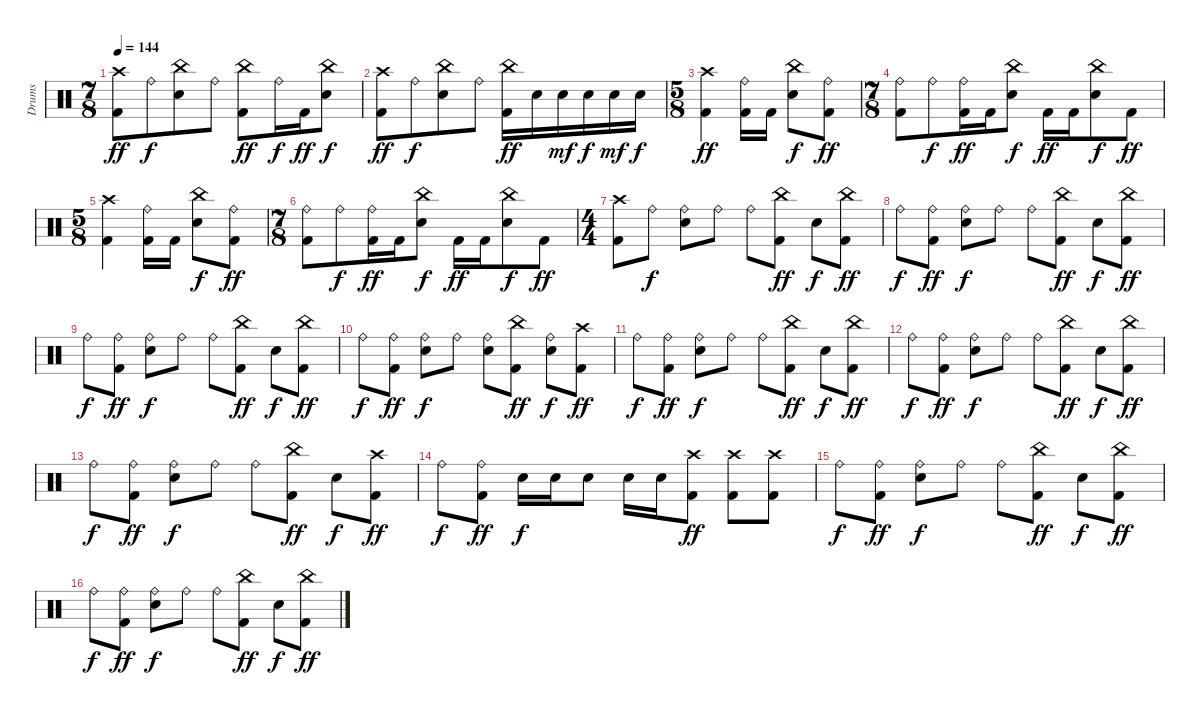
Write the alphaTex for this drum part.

\track ("Drums" "Drums") {instrument percussion}
\staff {score}
\articulation defaults
\ts (7 8)
\tempo 144
\clef neutral
\ks c
("Crash high (hit)" "Kick (hit) 2").8{dy ff} "Ride (bell)".8{dy f} ("China (hit)" "Snare (hit) 2").8 "Ride (bell)".8 ("China (hit)" "Kick (hit) 2").8{dy ff} "Ride (bell)".16{dy f} "Kick (hit) 2".16{dy ff} ("China (hit)" "Snare (hit) 2").8{dy f} |
("Crash high (hit)" "Kick (hit) 2").8{dy ff} "Ride (bell)".8{dy f} ("China (hit)" "Snare (hit) 2").8 "Ride (bell)".8 ("China (hit)" "Kick (hit) 2").16{dy ff} "Snare (hit) 2".16 "Snare (hit) 2".16{dy mf} "Snare (hit) 2".16{dy f} "Snare (hit) 2".16{dy mf} "Snare (hit) 2".16{dy f} |
\ts (5 8)
("Crash high (hit)" "Kick (hit) 2").4{dy ff} ("Ride (bell)" "Kick (hit) 2").16 "Kick (hit) 2".16 ("China (hit)" "Snare (hit) 2").8{dy f} ("Ride (bell)" "Kick (hit) 2").8{dy ff} |
\ts (7 8)
("Ride (bell)" "Kick (hit) 2").8 "Ride (bell)".8{dy f} ("Ride (bell)" "Kick (hit) 2").16{dy ff} "Kick (hit) 2".16 ("China (hit)" "Snare (hit) 2").8{dy f} "Kick (hit) 2".16{dy ff} "Kick (hit) 2".16 ("China (hit)" "Snare (hit) 2").8{dy f} "Kick (hit) 2".8{dy ff} |
\ts (5 8)
("Crash high (hit)" "Kick (hit) 2").4 ("Ride (bell)" "Kick (hit) 2").16 "Kick (hit) 2".16 ("China (hit)" "Snare (hit) 2").8{dy f} ("Ride (bell)" "Kick (hit) 2").8{dy ff} |
\ts (7 8)
("Ride (bell)" "Kick (hit) 2").8 "Ride (bell)".8{dy f} ("Ride (bell)" "Kick (hit) 2").16{dy ff} "Kick (hit) 2".16 ("China (hit)" "Snare (hit) 2").8{dy f} "Kick (hit) 2".16{dy ff} "Kick (hit) 2".16 ("China (hit)" "Snare (hit) 2").8{dy f} "Kick (hit) 2".8{dy ff} |
\ts (4 4)
("Crash high (hit)" "Kick (hit) 2").8 "Ride (bell)".8{dy f} ("Ride (bell)" "Snare (hit) 2").8 "Ride (bell)".8 "Ride (bell)".8 ("China (hit)" "Kick (hit) 2").8{dy ff} "Snare (hit) 2".8{dy f} ("China (hit)" "Kick (hit) 2").8{dy ff} |
"Ride (bell)".8{dy f} ("Ride (bell)" "Kick (hit) 2").8{dy ff} ("Ride (bell)" "Snare (hit) 2").8{dy f} "Ride (bell)".8 "Ride (bell)".8 ("China (hit)" "Kick (hit) 2").8{dy ff} "Snare (hit) 2".8{dy f} ("China (hit)" "Kick (hit) 2").8{dy ff} |
"Ride (bell)".8{dy f} ("Ride (bell)" "Kick (hit) 2").8{dy ff} ("Ride (bell)" "Snare (hit) 2").8{dy f} "Ride (bell)".8 "Ride (bell)".8 ("China (hit)" "Kick (hit) 2").8{dy ff} "Snare (hit) 2".8{dy f} ("China (hit)" "Kick (hit) 2").8{dy ff} |
"Ride (bell)".8{dy f} ("Ride (bell)" "Kick (hit) 2").8{dy ff} ("Ride (bell)" "Snare (hit) 2").8{dy f} "Ride (bell)".8 ("Ride (bell)" "Snare (hit) 2").8 ("China (hit)" "Kick (hit) 2").8{dy ff} ("Ride (bell)" "Snare (hit) 2").8{dy f} ("Crash high (hit)" "Kick (hit) 2").8{dy ff} |
"Ride (bell)".8{dy f} ("Ride (bell)" "Kick (hit) 2").8{dy ff} ("Ride (bell)" "Snare (hit) 2").8{dy f} "Ride (bell)".8 "Ride (bell)".8 ("China (hit)" "Kick (hit) 2").8{dy ff} "Snare (hit) 2".8{dy f} ("China (hit)" "Kick (hit) 2").8{dy ff} |
"Ride (bell)".8{dy f} ("Ride (bell)" "Kick (hit) 2").8{dy ff} ("Ride (bell)" "Snare (hit) 2").8{dy f} "Ride (bell)".8 "Ride (bell)".8 ("China (hit)" "Kick (hit) 2").8{dy ff} "Snare (hit) 2".8{dy f} ("China (hit)" "Kick (hit) 2").8{dy ff} |
"Ride (bell)".8{dy f} ("Ride (bell)" "Kick (hit) 2").8{dy ff} ("Ride (bell)" "Snare (hit) 2").8{dy f} "Ride (bell)".8 "Ride (bell)".8 ("China (hit)" "Kick (hit) 2").8{dy ff} "Snare (hit) 2".8{dy f} ("Crash high (hit)" "Kick (hit) 2").8{dy ff} |
"Ride (bell)".8{dy f} ("Ride (bell)" "Kick (hit) 2").8{dy ff} "Snare (hit) 2".16{dy f} "Snare (hit) 2".16 "Snare (hit) 2".8 "Snare (hit) 2".16 "Snare (hit) 2".16 ("Crash high (hit)" "Kick (hit) 2").8{dy ff} ("Crash high (hit)" "Kick (hit) 2").8 ("Crash high (hit)" "Kick (hit) 2").8 |
"Ride (bell)".8{dy f} ("Ride (bell)" "Kick (hit) 2").8{dy ff} ("Ride (bell)" "Snare (hit) 2").8{dy f} "Ride (bell)".8 "Ride (bell)".8 ("China (hit)" "Kick (hit) 2").8{dy ff} "Snare (hit) 2".8{dy f} ("China (hit)" "Kick (hit) 2").8{dy ff} |
"Ride (bell)".8{dy f} ("Ride (bell)" "Kick (hit) 2").8{dy ff} ("Ride (bell)" "Snare (hit) 2").8{dy f} "Ride (bell)".8 "Ride (bell)".8 ("China (hit)" "Kick (hit) 2").8{dy ff} "Snare (hit) 2".8{dy f} ("China (hit)" "Kick (hit) 2").8{dy ff}
